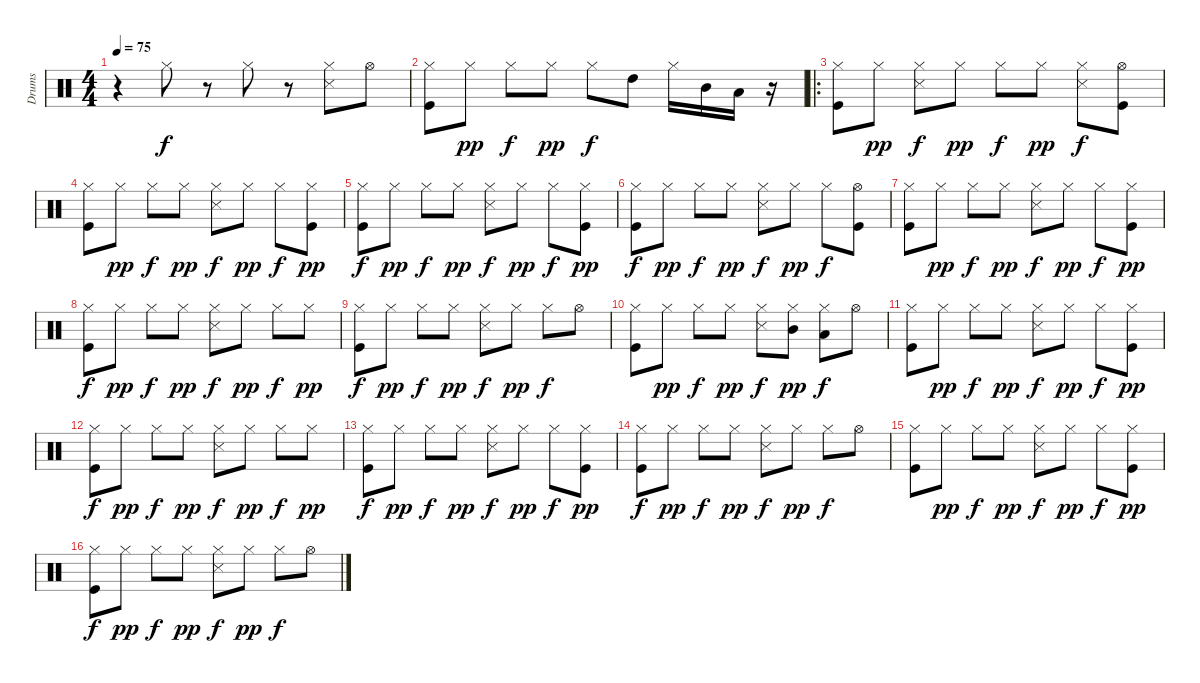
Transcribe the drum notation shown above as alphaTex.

\track ("Drums" "Drums") {instrument percussion}
\staff {score}
\articulation defaults
\ts (4 4)
\tempo 75
\clef neutral
\ks c
r.4{dy f} "Hi-Hat (closed)".8 r.8 "Hi-Hat (closed)".8 r.8 ("Snare (side stick) 3" "Hi-Hat (closed)").8 "Hi-Hat (open)".8 |
("Hi-Hat (closed)" "Kick (hit)").8 "Hi-Hat (closed)".8{dy pp} "Hi-Hat (closed)".8{dy f} "Hi-Hat (closed)".8{dy pp} "Hi-Hat (closed)".8{dy f} "High Tom (hit)".8 "Hi-Hat (closed)".16 "Mid Tom (hit)".16 "Low Tom (hit)".16 r.16 |
\ro
("Kick (hit)" "Hi-Hat (closed)").8 "Hi-Hat (closed)".8{dy pp} ("Snare (side stick) 3" "Hi-Hat (closed)").8{dy f} "Hi-Hat (closed)".8{dy pp} "Hi-Hat (closed)".8{dy f} "Hi-Hat (closed)".8{dy pp} ("Snare (side stick) 3" "Hi-Hat (closed)").8{dy f} ("Kick (hit)" "Hi-Hat (open)").8 |
("Kick (hit)" "Hi-Hat (closed)").8 "Hi-Hat (closed)".8{dy pp} "Hi-Hat (closed)".8{dy f} "Hi-Hat (closed)".8{dy pp} ("Snare (side stick) 3" "Hi-Hat (closed)").8{dy f} "Hi-Hat (closed)".8{dy pp} "Hi-Hat (closed)".8{dy f} ("Kick (hit)" "Hi-Hat (closed)").8{dy pp} |
("Hi-Hat (closed)" "Kick (hit)").8{dy f} "Hi-Hat (closed)".8{dy pp} "Hi-Hat (closed)".8{dy f} "Hi-Hat (closed)".8{dy pp} ("Snare (side stick) 3" "Hi-Hat (closed)").8{dy f} "Hi-Hat (closed)".8{dy pp} "Hi-Hat (closed)".8{dy f} ("Kick (hit)" "Hi-Hat (closed)").8{dy pp} |
("Hi-Hat (closed)" "Kick (hit)").8{dy f} "Hi-Hat (closed)".8{dy pp} "Hi-Hat (closed)".8{dy f} "Hi-Hat (closed)".8{dy pp} ("Hi-Hat (closed)" "Snare (side stick) 3").8{dy f} "Hi-Hat (closed)".8{dy pp} "Hi-Hat (closed)".8{dy f} ("Kick (hit)" "Hi-Hat (open)").8 |
("Kick (hit)" "Hi-Hat (closed)").8 "Hi-Hat (closed)".8{dy pp} "Hi-Hat (closed)".8{dy f} "Hi-Hat (closed)".8{dy pp} ("Snare (side stick) 3" "Hi-Hat (closed)").8{dy f} "Hi-Hat (closed)".8{dy pp} "Hi-Hat (closed)".8{dy f} ("Kick (hit)" "Hi-Hat (closed)").8{dy pp} |
("Kick (hit)" "Hi-Hat (closed)").8{dy f} "Hi-Hat (closed)".8{dy pp} "Hi-Hat (closed)".8{dy f} "Hi-Hat (closed)".8{dy pp} ("Snare (side stick) 3" "Hi-Hat (closed)").8{dy f} "Hi-Hat (closed)".8{dy pp} "Hi-Hat (closed)".8{dy f} "Hi-Hat (closed)".8{dy pp} |
("Kick (hit)" "Hi-Hat (closed)").8{dy f} "Hi-Hat (closed)".8{dy pp} "Hi-Hat (closed)".8{dy f} "Hi-Hat (closed)".8{dy pp} ("Snare (side stick) 3" "Hi-Hat (closed)").8{dy f} "Hi-Hat (closed)".8{dy pp} "Hi-Hat (closed)".8{dy f} "Hi-Hat (open)".8 |
("Kick (hit)" "Hi-Hat (closed)").8 "Hi-Hat (closed)".8{dy pp} "Hi-Hat (closed)".8{dy f} "Hi-Hat (closed)".8{dy pp} ("Snare (side stick) 3" "Hi-Hat (closed)").8{dy f} ("Mid Tom (hit)" "Hi-Hat (closed)").8{dy pp} ("Low Tom (hit)" "Hi-Hat (closed)").8{dy f} "Hi-Hat (open)".8 |
("Kick (hit)" "Hi-Hat (closed)").8 "Hi-Hat (closed)".8{dy pp} "Hi-Hat (closed)".8{dy f} "Hi-Hat (closed)".8{dy pp} ("Snare (side stick) 3" "Hi-Hat (closed)").8{dy f} "Hi-Hat (closed)".8{dy pp} "Hi-Hat (closed)".8{dy f} ("Kick (hit)" "Hi-Hat (closed)").8{dy pp} |
("Kick (hit)" "Hi-Hat (closed)").8{dy f} "Hi-Hat (closed)".8{dy pp} "Hi-Hat (closed)".8{dy f} "Hi-Hat (closed)".8{dy pp} ("Snare (side stick) 3" "Hi-Hat (closed)").8{dy f} "Hi-Hat (closed)".8{dy pp} "Hi-Hat (closed)".8{dy f} "Hi-Hat (closed)".8{dy pp} |
("Kick (hit)" "Hi-Hat (closed)").8{dy f} "Hi-Hat (closed)".8{dy pp} "Hi-Hat (closed)".8{dy f} "Hi-Hat (closed)".8{dy pp} ("Snare (side stick) 3" "Hi-Hat (closed)").8{dy f} "Hi-Hat (closed)".8{dy pp} "Hi-Hat (closed)".8{dy f} ("Kick (hit)" "Hi-Hat (closed)").8{dy pp} |
("Kick (hit)" "Hi-Hat (closed)").8{dy f} "Hi-Hat (closed)".8{dy pp} "Hi-Hat (closed)".8{dy f} "Hi-Hat (closed)".8{dy pp} ("Snare (side stick) 3" "Hi-Hat (closed)").8{dy f} "Hi-Hat (closed)".8{dy pp} "Hi-Hat (closed)".8{dy f} "Hi-Hat (open)".8 |
("Kick (hit)" "Hi-Hat (closed)").8 "Hi-Hat (closed)".8{dy pp} "Hi-Hat (closed)".8{dy f} "Hi-Hat (closed)".8{dy pp} ("Snare (side stick) 3" "Hi-Hat (closed)").8{dy f} "Hi-Hat (closed)".8{dy pp} "Hi-Hat (closed)".8{dy f} ("Kick (hit)" "Hi-Hat (closed)").8{dy pp} |
("Kick (hit)" "Hi-Hat (closed)").8{dy f} "Hi-Hat (closed)".8{dy pp} "Hi-Hat (closed)".8{dy f} "Hi-Hat (closed)".8{dy pp} ("Snare (side stick) 3" "Hi-Hat (closed)").8{dy f} "Hi-Hat (closed)".8{dy pp} "Hi-Hat (closed)".8{dy f} "Hi-Hat (open)".8
